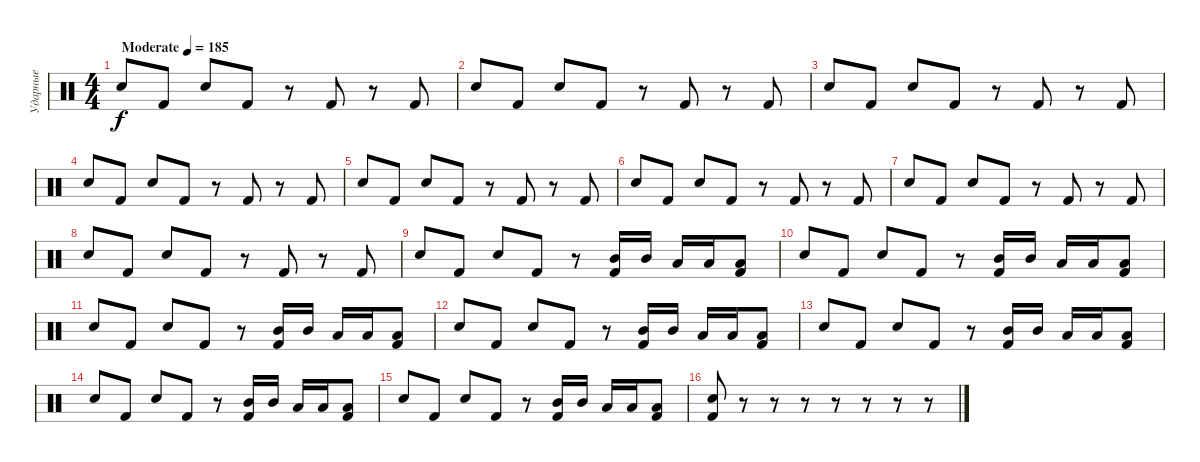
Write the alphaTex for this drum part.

\track ("Ударные" "Ударные") {instrument percussion}
\staff {score}
\articulation defaults
\ts (4 4)
\tempo (185 "Moderate")
\clef neutral
\ks c "Electric Snare (hit)".8{dy f} "Kick (hit) 2".8 "Electric Snare (hit)".8 "Kick (hit) 2".8
r.8 "Kick (hit) 2".8 r.8 "Kick (hit) 2".8 |
"Electric Snare (hit)".8 "Kick (hit) 2".8 "Electric Snare (hit)".8 "Kick (hit) 2".8 r.8 "Kick (hit) 2".8 r.8 "Kick (hit) 2".8 |
"Electric Snare (hit)".8 "Kick (hit) 2".8 "Electric Snare (hit)".8 "Kick (hit) 2".8 r.8 "Kick (hit) 2".8 r.8 "Kick (hit) 2".8 |
"Electric Snare (hit)".8 "Kick (hit) 2".8 "Electric Snare (hit)".8 "Kick (hit) 2".8 r.8 "Kick (hit) 2".8 r.8 "Kick (hit) 2".8 |
"Electric Snare (hit)".8 "Kick (hit) 2".8 "Electric Snare (hit)".8 "Kick (hit) 2".8 r.8 "Kick (hit) 2".8 r.8 "Kick (hit) 2".8 |
"Electric Snare (hit)".8 "Kick (hit) 2".8 "Electric Snare (hit)".8 "Kick (hit) 2".8 r.8 "Kick (hit) 2".8 r.8 "Kick (hit) 2".8 |
"Electric Snare (hit)".8 "Kick (hit) 2".8 "Electric Snare (hit)".8 "Kick (hit) 2".8 r.8 "Kick (hit) 2".8 r.8 "Kick (hit) 2".8 |
"Electric Snare (hit)".8 "Kick (hit) 2".8 "Electric Snare (hit)".8 "Kick (hit) 2".8 r.8 "Kick (hit) 2".8 r.8 "Kick (hit) 2".8 |
"Electric Snare (hit)".8 "Kick (hit) 2".8 "Electric Snare (hit)".8 "Kick (hit) 2".8 r.8 ("Mid Tom (hit)" "Kick (hit) 2").16 "Mid Tom (hit)".16 "Low Tom (hit)".16 "Low Tom (hit)".16 ("Low Tom (hit)" "Kick (hit) 2").8 |
"Electric Snare (hit)".8 "Kick (hit) 2".8 "Electric Snare (hit)".8 "Kick (hit) 2".8 r.8 ("Mid Tom (hit)" "Kick (hit) 2").16 "Mid Tom (hit)".16 "Low Tom (hit)".16 "Low Tom (hit)".16 ("Low Tom (hit)" "Kick (hit) 2").8 |
"Electric Snare (hit)".8 "Kick (hit) 2".8 "Electric Snare (hit)".8 "Kick (hit) 2".8 r.8 ("Mid Tom (hit)" "Kick (hit) 2").16 "Mid Tom (hit)".16 "Low Tom (hit)".16 "Low Tom (hit)".16 ("Low Tom (hit)" "Kick (hit) 2").8 |
"Electric Snare (hit)".8 "Kick (hit) 2".8 "Electric Snare (hit)".8 "Kick (hit) 2".8 r.8 ("Mid Tom (hit)" "Kick (hit) 2").16 "Mid Tom (hit)".16 "Low Tom (hit)".16 "Low Tom (hit)".16 ("Low Tom (hit)" "Kick (hit) 2").8 |
"Electric Snare (hit)".8 "Kick (hit) 2".8 "Electric Snare (hit)".8 "Kick (hit) 2".8 r.8 ("Mid Tom (hit)" "Kick (hit) 2").16 "Mid Tom (hit)".16 "Low Tom (hit)".16 "Low Tom (hit)".16 ("Low Tom (hit)" "Kick (hit) 2").8 |
"Electric Snare (hit)".8 "Kick (hit) 2".8 "Electric Snare (hit)".8 "Kick (hit) 2".8 r.8 ("Mid Tom (hit)" "Kick (hit) 2").16 "Mid Tom (hit)".16 "Low Tom (hit)".16 "Low Tom (hit)".16 ("Low Tom (hit)" "Kick (hit) 2").8 |
"Electric Snare (hit)".8 "Kick (hit) 2".8 "Electric Snare (hit)".8 "Kick (hit) 2".8 r.8 ("Mid Tom (hit)" "Kick (hit) 2").16 "Mid Tom (hit)".16 "Low Tom (hit)".16 "Low Tom (hit)".16 ("Low Tom (hit)" "Kick (hit) 2").8 |
("Electric Snare (hit)" "Kick (hit) 2").8 r.8 r.8 r.8 r.8 r.8 r.8 r.8
